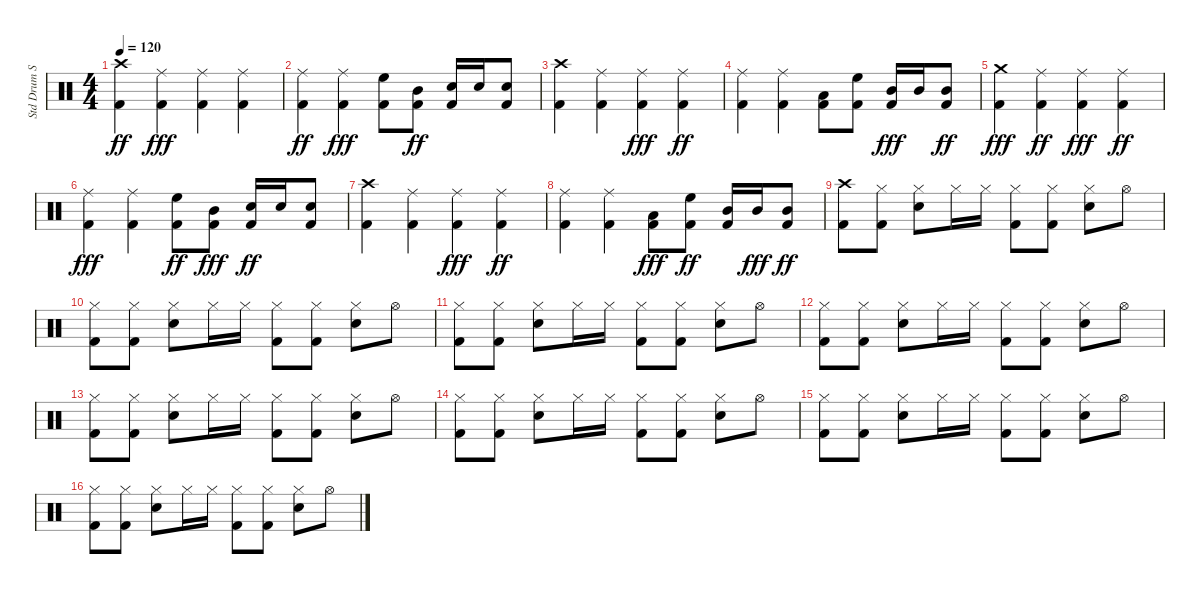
\track ("Std Drum Set 1" "Std Drum S") {instrument percussion}
\staff {score}
\articulation defaults
\ts (4 4)
\tempo 120
\clef neutral
\ks c
("Crash high (hit)" "Kick (hit) 2").4{dy ff} ("Kick (hit) 2" "Ride (middle)").4{dy fff} ("Kick (hit) 2" "Ride (middle)").4 ("Kick (hit) 2" "Ride (middle)").4 |
("Ride (middle)" "Kick (hit) 2").4{dy ff} ("Kick (hit) 2" "Ride (middle)").4{dy fff} ("Kick (hit) 2" "High Floor Tom (hit)").8 ("Mid Tom (hit)" "Kick (hit) 2").8{dy ff} ("Snare (hit) 2" "Kick (hit) 2").16 "Snare (hit) 2".16 ("Kick (hit) 2" "Snare (hit) 2").8 |
("Crash high (hit)" "Kick (hit) 2").4 ("Ride (middle)" "Kick (hit) 2").4 ("Kick (hit) 2" "Ride (middle)").4{dy fff} ("Ride (middle)" "Kick (hit) 2").4{dy ff} |
("Ride (middle)" "Kick (hit) 2").4 ("Ride (middle)" "Kick (hit) 2").4 ("Low Tom (hit)" "Kick (hit) 2").8 ("High Floor Tom (hit)" "Kick (hit) 2").8 ("Kick (hit) 2" "Mid Tom (hit)").16{dy fff} "Mid Tom (hit)".16 ("Mid Tom (hit)" "Kick (hit) 2").8{dy ff} |
("Kick (hit) 2" "Crash medium (hit)").4{dy fff} ("Ride (middle)" "Kick (hit) 2").4{dy ff} ("Kick (hit) 2" "Ride (middle)").4{dy fff} ("Ride (middle)" "Kick (hit) 2").4{dy ff} |
("Kick (hit) 2" "Ride (middle)").4{dy fff} ("Kick (hit) 2" "Ride (middle)").4 ("High Floor Tom (hit)" "Kick (hit) 2").8{dy ff} ("Kick (hit) 2" "Mid Tom (hit)").8{dy fff} ("Snare (hit) 2" "Kick (hit) 2").16{dy ff} "Snare (hit) 2".16 ("Kick (hit) 2" "Snare (hit) 2").8 |
("Crash high (hit)" "Kick (hit) 2").4 ("Ride (middle)" "Kick (hit) 2").4 ("Kick (hit) 2" "Ride (middle)").4{dy fff} ("Ride (middle)" "Kick (hit) 2").4{dy ff} |
("Ride (middle)" "Kick (hit) 2").4 ("Ride (middle)" "Kick (hit) 2").4 ("Kick (hit) 2" "Low Tom (hit)").8{dy fff} ("High Floor Tom (hit)" "Kick (hit) 2").8{dy ff} ("Mid Tom (hit)" "Kick (hit) 2").16 "Mid Tom (hit)".16{dy fff} ("Mid Tom (hit)" "Kick (hit) 2").8{dy ff} |
("Crash high (hit)" "Kick (hit) 2").8 ("Kick (hit) 2" "Hi-Hat (closed)").8 ("Hi-Hat (closed)" "Snare (hit) 2").8 "Hi-Hat (closed)".16 "Hi-Hat (closed)".16 ("Hi-Hat (closed)" "Kick (hit) 2").8 ("Hi-Hat (closed)" "Kick (hit) 2").8 ("Hi-Hat (closed)" "Snare (hit) 2").8 "Hi-Hat (open)".8 |
("Hi-Hat (closed)" "Kick (hit) 2").8 ("Hi-Hat (closed)" "Kick (hit) 2").8 ("Hi-Hat (closed)" "Snare (hit) 2").8 "Hi-Hat (closed)".16 "Hi-Hat (closed)".16 ("Hi-Hat (closed)" "Kick (hit) 2").8 ("Kick (hit) 2" "Hi-Hat (closed)").8 ("Snare (hit) 2" "Hi-Hat (closed)").8 "Hi-Hat (open)".8 |
("Kick (hit) 2" "Hi-Hat (closed)").8 ("Hi-Hat (closed)" "Kick (hit) 2").8 ("Snare (hit) 2" "Hi-Hat (closed)").8 "Hi-Hat (closed)".16 "Hi-Hat (closed)".16 ("Hi-Hat (closed)" "Kick (hit) 2").8 ("Kick (hit) 2" "Hi-Hat (closed)").8 ("Hi-Hat (closed)" "Snare (hit) 2").8 "Hi-Hat (open)".8 |
("Kick (hit) 2" "Hi-Hat (closed)").8 ("Hi-Hat (closed)" "Kick (hit) 2").8 ("Hi-Hat (closed)" "Snare (hit) 2").8 "Hi-Hat (closed)".16 "Hi-Hat (closed)".16 ("Hi-Hat (closed)" "Kick (hit) 2").8 ("Kick (hit) 2" "Hi-Hat (closed)").8 ("Hi-Hat (closed)" "Snare (hit) 2").8 "Hi-Hat (open)".8 |
("Hi-Hat (closed)" "Kick (hit) 2").8 ("Hi-Hat (closed)" "Kick (hit) 2").8 ("Hi-Hat (closed)" "Snare (hit) 2").8 "Hi-Hat (closed)".16 "Hi-Hat (closed)".16 ("Hi-Hat (closed)" "Kick (hit) 2").8 ("Kick (hit) 2" "Hi-Hat (closed)").8 ("Hi-Hat (closed)" "Snare (hit) 2").8 "Hi-Hat (open)".8 |
("Kick (hit) 2" "Hi-Hat (closed)").8 ("Kick (hit) 2" "Hi-Hat (closed)").8 ("Snare (hit) 2" "Hi-Hat (closed)").8 "Hi-Hat (closed)".16 "Hi-Hat (closed)".16 ("Kick (hit) 2" "Hi-Hat (closed)").8 ("Hi-Hat (closed)" "Kick (hit) 2").8 ("Hi-Hat (closed)" "Snare (hit) 2").8 "Hi-Hat (open)".8 |
("Hi-Hat (closed)" "Kick (hit) 2").8 ("Hi-Hat (closed)" "Kick (hit) 2").8 ("Hi-Hat (closed)" "Snare (hit) 2").8 "Hi-Hat (closed)".16 "Hi-Hat (closed)".16 ("Hi-Hat (closed)" "Kick (hit) 2").8 ("Hi-Hat (closed)" "Kick (hit) 2").8 ("Hi-Hat (closed)" "Snare (hit) 2").8 "Hi-Hat (open)".8 |
("Hi-Hat (closed)" "Kick (hit) 2").8 ("Hi-Hat (closed)" "Kick (hit) 2").8 ("Hi-Hat (closed)" "Snare (hit) 2").8 "Hi-Hat (closed)".16 "Hi-Hat (closed)".16 ("Kick (hit) 2" "Hi-Hat (closed)").8 ("Kick (hit) 2" "Hi-Hat (closed)").8 ("Hi-Hat (closed)" "Snare (hit) 2").8 "Hi-Hat (open)".8
